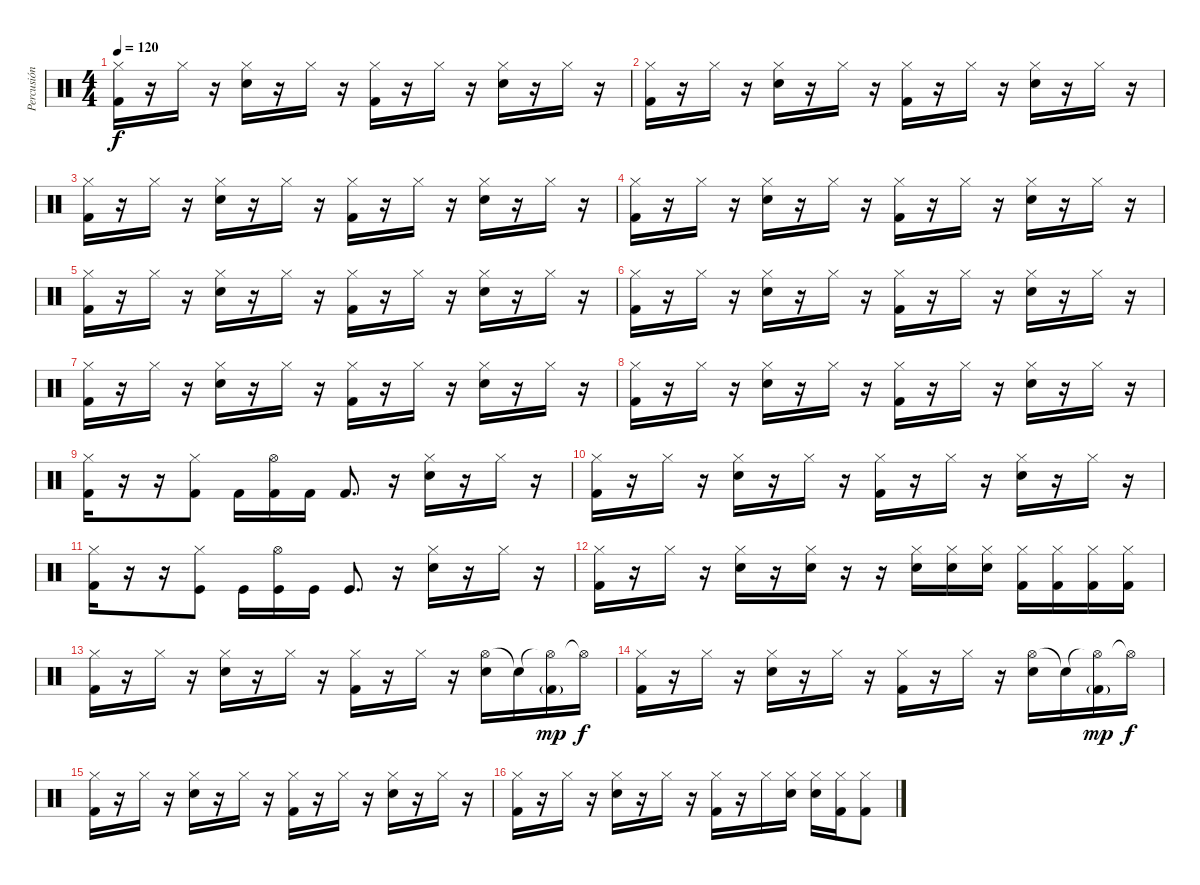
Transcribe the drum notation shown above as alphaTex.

\track ("Percusión" "Percusión") {instrument percussion}
\staff {score}
\articulation defaults
\ts (4 4)
\tempo 120
\clef neutral
\ks c
("Hi-Hat (closed)" "Kick (hit) 2").16{dy f} r.16 "Hi-Hat (closed)".16 r.16 ("Hi-Hat (closed)" "Snare (hit) 2").16 r.16 "Hi-Hat (closed)".16 r.16 ("Hi-Hat (closed)" "Kick (hit) 2").16 r.16 "Hi-Hat (closed)".16 r.16 ("Hi-Hat (closed)" "Snare (hit) 2").16 r.16 "Hi-Hat (closed)".16 r.16 |
("Hi-Hat (closed)" "Kick (hit) 2").16 r.16 "Hi-Hat (closed)".16 r.16 ("Hi-Hat (closed)" "Snare (hit) 2").16 r.16 "Hi-Hat (closed)".16 r.16 ("Hi-Hat (closed)" "Kick (hit) 2").16 r.16 "Hi-Hat (closed)".16 r.16 ("Hi-Hat (closed)" "Snare (hit) 2").16 r.16 "Hi-Hat (closed)".16 r.16 |
("Hi-Hat (closed)" "Kick (hit) 2").16 r.16 "Hi-Hat (closed)".16 r.16 ("Hi-Hat (closed)" "Snare (hit) 2").16 r.16 "Hi-Hat (closed)".16 r.16 ("Hi-Hat (closed)" "Kick (hit) 2").16 r.16 "Hi-Hat (closed)".16 r.16 ("Hi-Hat (closed)" "Snare (hit) 2").16 r.16 "Hi-Hat (closed)".16 r.16 |
("Hi-Hat (closed)" "Kick (hit) 2").16 r.16 "Hi-Hat (closed)".16 r.16 ("Hi-Hat (closed)" "Snare (hit) 2").16 r.16 "Hi-Hat (closed)".16 r.16 ("Hi-Hat (closed)" "Kick (hit) 2").16 r.16 "Hi-Hat (closed)".16 r.16 ("Hi-Hat (closed)" "Snare (hit) 2").16 r.16 "Hi-Hat (closed)".16 r.16 |
("Hi-Hat (closed)" "Kick (hit) 2").16 r.16 "Hi-Hat (closed)".16 r.16 ("Hi-Hat (closed)" "Snare (hit) 2").16 r.16 "Hi-Hat (closed)".16 r.16 ("Hi-Hat (closed)" "Kick (hit) 2").16 r.16 "Hi-Hat (closed)".16 r.16 ("Hi-Hat (closed)" "Snare (hit) 2").16 r.16 "Hi-Hat (closed)".16 r.16 |
("Hi-Hat (closed)" "Kick (hit) 2").16 r.16 "Hi-Hat (closed)".16 r.16 ("Hi-Hat (closed)" "Snare (hit) 2").16 r.16 "Hi-Hat (closed)".16 r.16 ("Hi-Hat (closed)" "Kick (hit) 2").16 r.16 "Hi-Hat (closed)".16 r.16 ("Hi-Hat (closed)" "Snare (hit) 2").16 r.16 "Hi-Hat (closed)".16 r.16 |
("Hi-Hat (closed)" "Kick (hit) 2").16 r.16 "Hi-Hat (closed)".16 r.16 ("Hi-Hat (closed)" "Snare (hit) 2").16 r.16 "Hi-Hat (closed)".16 r.16 ("Hi-Hat (closed)" "Kick (hit) 2").16 r.16 "Hi-Hat (closed)".16 r.16 ("Hi-Hat (closed)" "Snare (hit) 2").16 r.16 "Hi-Hat (closed)".16 r.16 |
("Hi-Hat (closed)" "Kick (hit) 2").16 r.16 "Hi-Hat (closed)".16 r.16 ("Hi-Hat (closed)" "Snare (hit) 2").16 r.16 "Hi-Hat (closed)".16 r.16 ("Hi-Hat (closed)" "Kick (hit) 2").16 r.16 "Hi-Hat (closed)".16 r.16 ("Hi-Hat (closed)" "Snare (hit) 2").16 r.16 "Hi-Hat (closed)".16 r.16 |
("Hi-Hat (closed)" "Kick (hit) 2").16 r.16 r.16 ("Hi-Hat (closed)" "Kick (hit) 2").8 "Kick (hit) 2".16 ("Hi-Hat (open)" "Kick (hit) 2").16 "Kick (hit) 2".16 "Kick (hit) 2".8{d} r.16 ("Hi-Hat (closed)" "Snare (hit) 2").16 r.16 "Hi-Hat (closed)".16 r.16 |
("Hi-Hat (closed)" "Kick (hit) 2").16 r.16 "Hi-Hat (closed)".16 r.16 ("Hi-Hat (closed)" "Snare (hit) 2").16 r.16 "Hi-Hat (closed)".16 r.16 ("Hi-Hat (closed)" "Kick (hit) 2").16 r.16 "Hi-Hat (closed)".16 r.16 ("Hi-Hat (closed)" "Snare (hit) 2").16 r.16 "Hi-Hat (closed)".16 r.16 |
("Hi-Hat (closed)" "Kick (hit) 2").16 r.16 r.16 ("Hi-Hat (closed)" "Kick (hit)").8 "Kick (hit)".16 ("Hi-Hat (open)" "Kick (hit)").16 "Kick (hit)".16 "Kick (hit)".8{d} r.16 ("Hi-Hat (closed)" "Snare (hit) 2").16 r.16 "Hi-Hat (closed)".16 r.16 |
("Hi-Hat (closed)" "Kick (hit) 2").16 r.16 "Hi-Hat (closed)".16 r.16 ("Hi-Hat (closed)" "Snare (hit) 2").16 r.16 ("Hi-Hat (closed)" "Snare (hit) 2").16 r.16 r.16 ("Hi-Hat (closed)" "Snare (hit) 2").16 ("Hi-Hat (closed)" "Snare (hit) 2").16 ("Hi-Hat (closed)" "Snare (hit) 2").16 ("Hi-Hat (closed)" "Kick (hit) 2").16 ("Hi-Hat (closed)" "Kick (hit) 2").16 ("Hi-Hat (closed)" "Kick (hit) 2").16 ("Hi-Hat (closed)" "Kick (hit) 2").16 |
("Hi-Hat (closed)" "Kick (hit) 2").16 r.16 "Hi-Hat (closed)".16 r.16 ("Hi-Hat (closed)" "Snare (hit) 2").16 r.16 "Hi-Hat (closed)".16 r.16 ("Hi-Hat (closed)" "Kick (hit) 2").16 r.16 "Hi-Hat (closed)".16 r.16 ("Hi-Hat (open)" "Snare (hit) 2").16 "Snare (hit)"{t}.16 ("Hi-Hat (open)"{t} "Kick (hit) 2"{g}).16{dy mp} "Hi-Hat (open)"{t}.16{dy f} |
("Hi-Hat (closed)" "Kick (hit) 2").16 r.16 "Hi-Hat (closed)".16 r.16 ("Hi-Hat (closed)" "Snare (hit) 2").16 r.16 "Hi-Hat (closed)".16 r.16 ("Hi-Hat (closed)" "Kick (hit) 2").16 r.16 "Hi-Hat (closed)".16 r.16 ("Hi-Hat (open)" "Snare (hit) 2").16 "Snare (hit)"{t}.16 ("Hi-Hat (open)"{t} "Kick (hit) 2"{g}).16{dy mp} "Hi-Hat (open)"{t}.16{dy f} |
("Hi-Hat (closed)" "Kick (hit) 2").16 r.16 "Hi-Hat (closed)".16 r.16 ("Hi-Hat (closed)" "Snare (hit) 2").16 r.16 "Hi-Hat (closed)".16 r.16 ("Hi-Hat (closed)" "Kick (hit) 2").16 r.16 "Hi-Hat (closed)".16 r.16 ("Hi-Hat (closed)" "Snare (hit) 2").16 r.16 "Hi-Hat (closed)".16 r.16 |
("Hi-Hat (closed)" "Kick (hit) 2").16 r.16 "Hi-Hat (closed)".16 r.16 ("Hi-Hat (closed)" "Snare (hit) 2").16 r.16 "Hi-Hat (closed)".16 r.16 ("Hi-Hat (closed)" "Kick (hit) 2").16 r.16 "Hi-Hat (closed)".16 ("Hi-Hat (closed)" "Snare (hit) 2").16 ("Hi-Hat (closed)" "Snare (hit) 2").16 ("Hi-Hat (closed)" "Kick (hit) 2").16 ("Hi-Hat (closed)" "Kick (hit) 2").8
